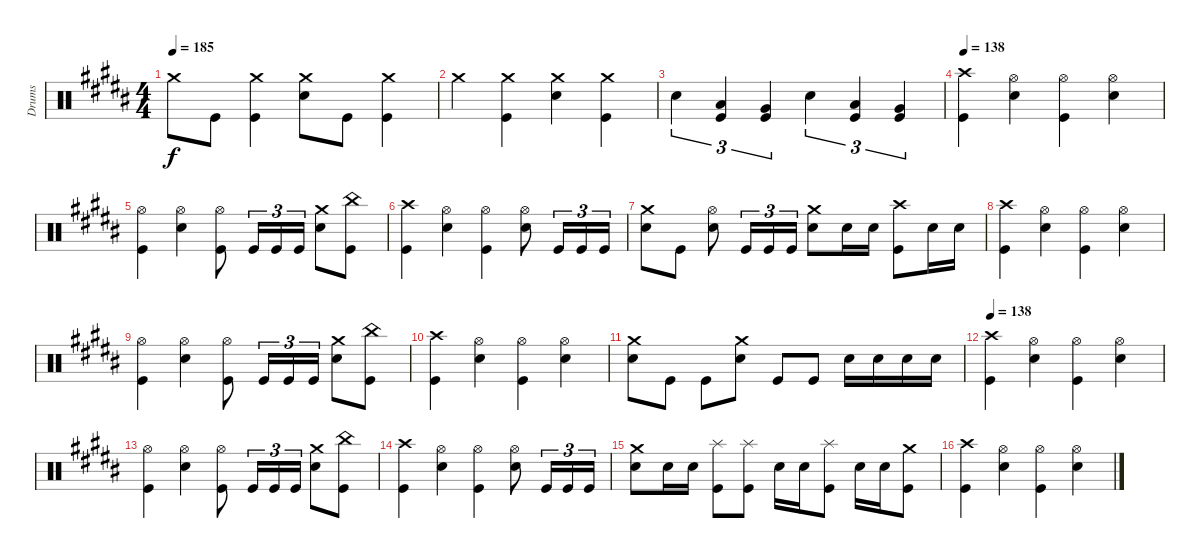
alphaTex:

\track ("Drums" "Drums") {instrument percussion}
\staff {score}
\articulation defaults
\ts (4 4)
\tempo 185
\clef neutral
\ks g#minor "Crash medium (hit)".8{dy f} "Kick (hit)".8
("Crash medium (hit)" "Kick (hit)").4 ("Snare (hit) 2" "Crash medium (hit)").8 "Kick (hit)".8 ("Kick (hit)" "Crash medium (hit)").4 |
"Crash medium (hit)".4 ("Kick (hit)" "Crash medium (hit)").4 ("Snare (hit) 2" "Crash medium (hit)").4 ("Crash medium (hit)" "Kick (hit)").4 |
"Snare (hit) 2".4{tu (3 2)} ("Kick (hit)" "Low Tom (hit)").4{tu (3 2)} ("Kick (hit)" "Very Low Tom (hit)").4{tu (3 2)} "Snare (hit) 2".4{tu (3 2)} ("Kick (hit)" "Low Tom (hit)").4{tu (3 2)} ("Kick (hit)" "Very Low Tom (hit)").4{tu (3 2)} |
\tempo 150
\tempo 138
\ks b
("Crash high (hit)" "Kick (hit)").4 ("Snare (hit) 2" "Hi-Hat (open)").4 ("Kick (hit)" "Hi-Hat (open)").4 ("Snare (hit) 2" "Hi-Hat (open)").4 |
\ks g#minor
("Kick (hit)" "Hi-Hat (open)").4 ("Snare (hit) 2" "Hi-Hat (open)").4 ("Kick (hit)" "Hi-Hat (open)").8 "Kick (hit)".16{tu (3 2)} "Kick (hit)".16{tu (3 2)} "Kick (hit)".16{tu (3 2)} ("Snare (hit) 2" "Crash medium (hit)").8 ("China (hit)" "Kick (hit)").8 |
("Crash high (hit)" "Kick (hit)").4 ("Snare (hit) 2" "Hi-Hat (open)").4 ("Kick (hit)" "Hi-Hat (open)").4 ("Snare (hit) 2" "Hi-Hat (open)").8 "Kick (hit)".16{tu (3 2)} "Kick (hit)".16{tu (3 2)} "Kick (hit)".16{tu (3 2)} |
("Snare (hit) 2" "Crash medium (hit)").8 "Kick (hit)".8 ("Snare (hit) 2" "Hi-Hat (open)").8 "Kick (hit)".16{tu (3 2)} "Kick (hit)".16{tu (3 2)} "Kick (hit)".16{tu (3 2)} ("Snare (hit) 2" "Crash medium (hit)").8 "Snare (hit) 2".16 "Snare (hit) 2".16 ("Kick (hit)" "Crash high (hit)").8 "Snare (hit) 2".16 "Snare (hit) 2".16 |
\ks b
("Crash high (hit)" "Kick (hit)").4 ("Snare (hit) 2" "Hi-Hat (open)").4 ("Kick (hit)" "Hi-Hat (open)").4 ("Snare (hit) 2" "Hi-Hat (open)").4 |
\ks g#minor
("Kick (hit)" "Hi-Hat (open)").4 ("Snare (hit) 2" "Hi-Hat (open)").4 ("Kick (hit)" "Hi-Hat (open)").8 "Kick (hit)".16{tu (3 2)} "Kick (hit)".16{tu (3 2)} "Kick (hit)".16{tu (3 2)} ("Snare (hit) 2" "Crash medium (hit)").8 ("China (hit)" "Kick (hit)").8 |
("Crash high (hit)" "Kick (hit)").4 ("Snare (hit) 2" "Hi-Hat (open)").4 ("Kick (hit)" "Hi-Hat (open)").4 ("Snare (hit) 2" "Hi-Hat (open)").4 |
("Crash medium (hit)" "Snare (hit) 2").8 "Kick (hit)".8 "Kick (hit)".8 ("Crash medium (hit)" "Snare (hit) 2").8 "Kick (hit)".8 "Kick (hit)".8 "Snare (hit) 2".16 "Snare (hit) 2".16 "Snare (hit) 2".16 "Snare (hit) 2".16 |
\tempo 150
\tempo 138
\ks b
("Crash high (hit)" "Kick (hit)").4 ("Snare (hit) 2" "Hi-Hat (open)").4 ("Kick (hit)" "Hi-Hat (open)").4 ("Snare (hit) 2" "Hi-Hat (open)").4 |
\ks g#minor
("Kick (hit)" "Hi-Hat (open)").4 ("Snare (hit) 2" "Hi-Hat (open)").4 ("Kick (hit)" "Hi-Hat (open)").8 "Kick (hit)".16{tu (3 2)} "Kick (hit)".16{tu (3 2)} "Kick (hit)".16{tu (3 2)} ("Snare (hit) 2" "Crash medium (hit)").8 ("China (hit)" "Kick (hit)").8 |
("Crash high (hit)" "Kick (hit)").4 ("Snare (hit) 2" "Hi-Hat (open)").4 ("Kick (hit)" "Hi-Hat (open)").4 ("Snare (hit) 2" "Hi-Hat (open)").8 "Kick (hit)".16{tu (3 2)} "Kick (hit)".16{tu (3 2)} "Kick (hit)".16{tu (3 2)} |
("Snare (hit) 2" "Crash medium (hit)").8 "Snare (hit) 2".16 "Snare (hit) 2".16 ("Splash (hit)" "Kick (hit)").8 ("Splash (hit)" "Kick (hit)").8 "Snare (hit) 2".16 "Snare (hit) 2".16 ("Splash (hit)" "Kick (hit)").8 "Snare (hit) 2".16 "Snare (hit) 2".16 ("Crash medium (hit)" "Kick (hit)").8 |
\ks b
("Crash high (hit)" "Kick (hit)").4 ("Snare (hit) 2" "Hi-Hat (open)").4 ("Kick (hit)" "Hi-Hat (open)").4 ("Snare (hit) 2" "Hi-Hat (open)").4
